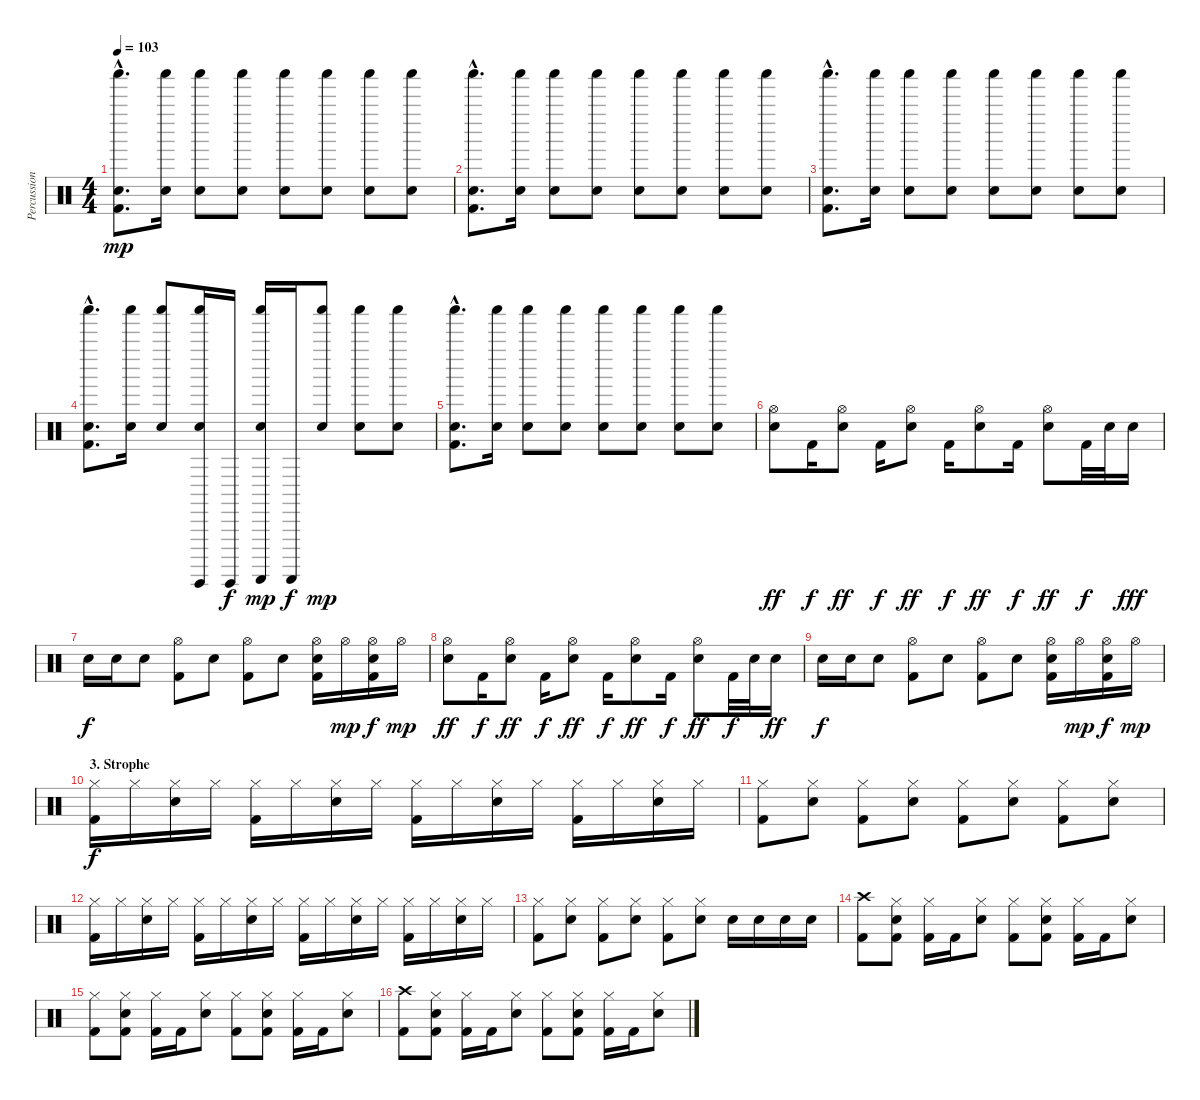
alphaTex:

\track ("Percussion" "Percussion") {instrument percussion}
\staff {score}
\articulation defaults
\ts (4 4)
\tempo 103
\clef neutral
\ks c
("Electric Snare (hit)"{hac} "Shaker (hit)"{hac} "Kick (hit) 2"{hac}).8{d dy mp} ("Electric Snare (hit)" "Shaker (hit)").16 ("Electric Snare (hit)" "Shaker (hit)").8 ("Electric Snare (hit)" "Shaker (hit)").8 ("Electric Snare (hit)" "Shaker (hit)").8 ("Electric Snare (hit)" "Shaker (hit)").8 ("Electric Snare (hit)" "Shaker (hit)").8 ("Electric Snare (hit)" "Shaker (hit)").8 |
("Electric Snare (hit)"{hac} "Shaker (hit)"{hac} "Kick (hit) 2"{hac}).8{d} ("Electric Snare (hit)" "Shaker (hit)").16 ("Electric Snare (hit)" "Shaker (hit)").8 ("Electric Snare (hit)" "Shaker (hit)").8 ("Electric Snare (hit)" "Shaker (hit)").8 ("Electric Snare (hit)" "Shaker (hit)").8 ("Electric Snare (hit)" "Shaker (hit)").8 ("Electric Snare (hit)" "Shaker (hit)").8 |
("Electric Snare (hit)"{hac} "Shaker (hit)"{hac} "Kick (hit) 2"{hac}).8{d} ("Electric Snare (hit)" "Shaker (hit)").16 ("Electric Snare (hit)" "Shaker (hit)").8 ("Electric Snare (hit)" "Shaker (hit)").8 ("Electric Snare (hit)" "Shaker (hit)").8 ("Electric Snare (hit)" "Shaker (hit)").8 ("Electric Snare (hit)" "Shaker (hit)").8 ("Electric Snare (hit)" "Shaker (hit)").8 |
("Electric Snare (hit)"{hac} "Shaker (hit)"{hac} "Kick (hit) 2"{hac}).8{d} ("Electric Snare (hit)" "Shaker (hit)").16 ("Electric Snare (hit)" "Shaker (hit)").8 ("Guiro (hit)" "Electric Snare (hit)" "Shaker (hit)").16 "Guiro (hit)".16{dy f} ("Guiro (scrap-return)" "Electric Snare (hit)" "Shaker (hit)").16{dy mp} "Guiro (scrap-return)".16{dy f} ("Electric Snare (hit)" "Shaker (hit)").8{dy mp} ("Electric Snare (hit)" "Shaker (hit)").8 ("Electric Snare (hit)" "Shaker (hit)").8 |
("Electric Snare (hit)"{hac} "Shaker (hit)"{hac} "Kick (hit) 2"{hac}).8{d} ("Electric Snare (hit)" "Shaker (hit)").16 ("Electric Snare (hit)" "Shaker (hit)").8 ("Electric Snare (hit)" "Shaker (hit)").8 ("Electric Snare (hit)" "Shaker (hit)").8 ("Electric Snare (hit)" "Shaker (hit)").8 ("Electric Snare (hit)" "Shaker (hit)").8 ("Electric Snare (hit)" "Shaker (hit)").8 |
("Hi-Hat (open)" "Electric Snare (hit)").8{dy ff volume 16} "Kick (hit) 2".16{dy f} ("Hi-Hat (open)" "Electric Snare (hit)").8{dy ff} "Kick (hit) 2".16{dy f} ("Hi-Hat (open)" "Electric Snare (hit)").8{dy ff} "Kick (hit) 2".16{dy f} ("Hi-Hat (open)" "Electric Snare (hit)").8{dy ff} "Kick (hit) 2".16{dy f} ("Hi-Hat (open)" "Electric Snare (hit)").8{dy ff} "Kick (hit) 2".32{dy f} "Electric Snare (hit)".32 "Electric Snare (hit)".16{dy fff} |
"Snare (hit) 2".16{dy f} "Snare (hit) 2".16 "Snare (hit) 2".8 ("Hi-Hat (open)" "Kick (hit) 2").8 "Electric Snare (hit)".8 ("Hi-Hat (open)" "Kick (hit) 2").8 "Electric Snare (hit)".8 ("Hi-Hat (open)" "Electric Snare (hit)" "Kick (hit) 2").16 "Hi-Hat (open)".16{dy mp} ("Hi-Hat (open)" "Electric Snare (hit)" "Kick (hit) 2").16{dy f} "Hi-Hat (open)".16{dy mp} |
("Hi-Hat (open)" "Electric Snare (hit)").8{dy ff} "Kick (hit) 2".16{dy f} ("Hi-Hat (open)" "Electric Snare (hit)").8{dy ff} "Kick (hit) 2".16{dy f} ("Hi-Hat (open)" "Electric Snare (hit)").8{dy ff} "Kick (hit) 2".16{dy f} ("Hi-Hat (open)" "Electric Snare (hit)").8{dy ff} "Kick (hit) 2".16{dy f} ("Hi-Hat (open)" "Electric Snare (hit)").8{dy ff} "Kick (hit) 2".32{dy f} "Electric Snare (hit)".32 "Electric Snare (hit)".16{dy ff} |
"Snare (hit) 2".16{dy f} "Snare (hit) 2".16 "Snare (hit) 2".8 ("Hi-Hat (open)" "Kick (hit) 2").8 "Electric Snare (hit)".8 ("Hi-Hat (open)" "Kick (hit) 2").8 "Electric Snare (hit)".8 ("Hi-Hat (open)" "Electric Snare (hit)" "Kick (hit) 2").16 "Hi-Hat (open)".16{dy mp} ("Hi-Hat (open)" "Electric Snare (hit)" "Kick (hit) 2").16{dy f} "Hi-Hat (open)".16{dy mp} |
\section ("" "3. Strophe")
("Hi-Hat (closed)" "Kick (hit) 2").16{dy f volume 13} "Hi-Hat (closed)".16 ("Hi-Hat (closed)" "Electric Snare (hit)").16 "Hi-Hat (closed)".16 ("Hi-Hat (closed)" "Kick (hit) 2").16 "Hi-Hat (closed)".16 ("Hi-Hat (closed)" "Electric Snare (hit)").16 "Hi-Hat (closed)".16 ("Hi-Hat (closed)" "Kick (hit) 2").16 "Hi-Hat (closed)".16 ("Hi-Hat (closed)" "Electric Snare (hit)").16 "Hi-Hat (closed)".16 ("Hi-Hat (closed)" "Kick (hit) 2").16 "Hi-Hat (closed)".16 ("Hi-Hat (closed)" "Electric Snare (hit)").16 "Hi-Hat (closed)".16 |
("Hi-Hat (closed)" "Kick (hit) 2").8 ("Hi-Hat (closed)" "Electric Snare (hit)").8 ("Hi-Hat (closed)" "Kick (hit) 2").8 ("Hi-Hat (closed)" "Electric Snare (hit)").8 ("Hi-Hat (closed)" "Kick (hit) 2").8 ("Hi-Hat (closed)" "Electric Snare (hit)").8 ("Hi-Hat (closed)" "Kick (hit) 2").8 ("Hi-Hat (closed)" "Electric Snare (hit)").8 |
("Hi-Hat (closed)" "Kick (hit) 2").16 "Hi-Hat (closed)".16 ("Hi-Hat (closed)" "Electric Snare (hit)").16 "Hi-Hat (closed)".16 ("Hi-Hat (closed)" "Kick (hit) 2").16 "Hi-Hat (closed)".16 ("Hi-Hat (closed)" "Electric Snare (hit)").16 "Hi-Hat (closed)".16 ("Hi-Hat (closed)" "Kick (hit) 2").16 "Hi-Hat (closed)".16 ("Hi-Hat (closed)" "Electric Snare (hit)").16 "Hi-Hat (closed)".16 ("Hi-Hat (closed)" "Kick (hit) 2").16 "Hi-Hat (closed)".16 ("Hi-Hat (closed)" "Electric Snare (hit)").16 "Hi-Hat (closed)".16 |
("Hi-Hat (closed)" "Kick (hit) 2").8 ("Hi-Hat (closed)" "Electric Snare (hit)").8 ("Hi-Hat (closed)" "Kick (hit) 2").8 ("Hi-Hat (closed)" "Electric Snare (hit)").8 ("Hi-Hat (closed)" "Kick (hit) 2").8 ("Hi-Hat (closed)" "Electric Snare (hit)").8 "Electric Snare (hit)".16 "Electric Snare (hit)".16 "Snare (hit) 2".16 "Snare (hit) 2".16 |
("Crash high (hit)" "Kick (hit) 2").8 ("Hi-Hat (closed)" "Electric Snare (hit)" "Kick (hit) 2").8 ("Hi-Hat (closed)" "Kick (hit) 2").16 "Kick (hit) 2".16 ("Hi-Hat (closed)" "Electric Snare (hit)").8 ("Hi-Hat (closed)" "Kick (hit) 2").8 ("Hi-Hat (closed)" "Electric Snare (hit)" "Kick (hit) 2").8 ("Hi-Hat (closed)" "Kick (hit) 2").16 "Kick (hit) 2".16 ("Hi-Hat (closed)" "Electric Snare (hit)").8 |
("Hi-Hat (closed)" "Kick (hit) 2").8 ("Hi-Hat (closed)" "Electric Snare (hit)" "Kick (hit) 2").8 ("Hi-Hat (closed)" "Kick (hit) 2").16 "Kick (hit) 2".16 ("Hi-Hat (closed)" "Electric Snare (hit)").8 ("Hi-Hat (closed)" "Kick (hit) 2").8 ("Hi-Hat (closed)" "Electric Snare (hit)" "Kick (hit) 2").8 ("Hi-Hat (closed)" "Kick (hit) 2").16 "Kick (hit) 2".16 ("Hi-Hat (closed)" "Electric Snare (hit)").8 |
("Crash high (hit)" "Kick (hit) 2").8 ("Hi-Hat (closed)" "Electric Snare (hit)" "Kick (hit) 2").8 ("Hi-Hat (closed)" "Kick (hit) 2").16 "Kick (hit) 2".16 ("Hi-Hat (closed)" "Electric Snare (hit)").8 ("Hi-Hat (closed)" "Kick (hit) 2").8 ("Hi-Hat (closed)" "Electric Snare (hit)" "Kick (hit) 2").8 ("Hi-Hat (closed)" "Kick (hit) 2").16 "Kick (hit) 2".16 ("Hi-Hat (closed)" "Electric Snare (hit)").8
